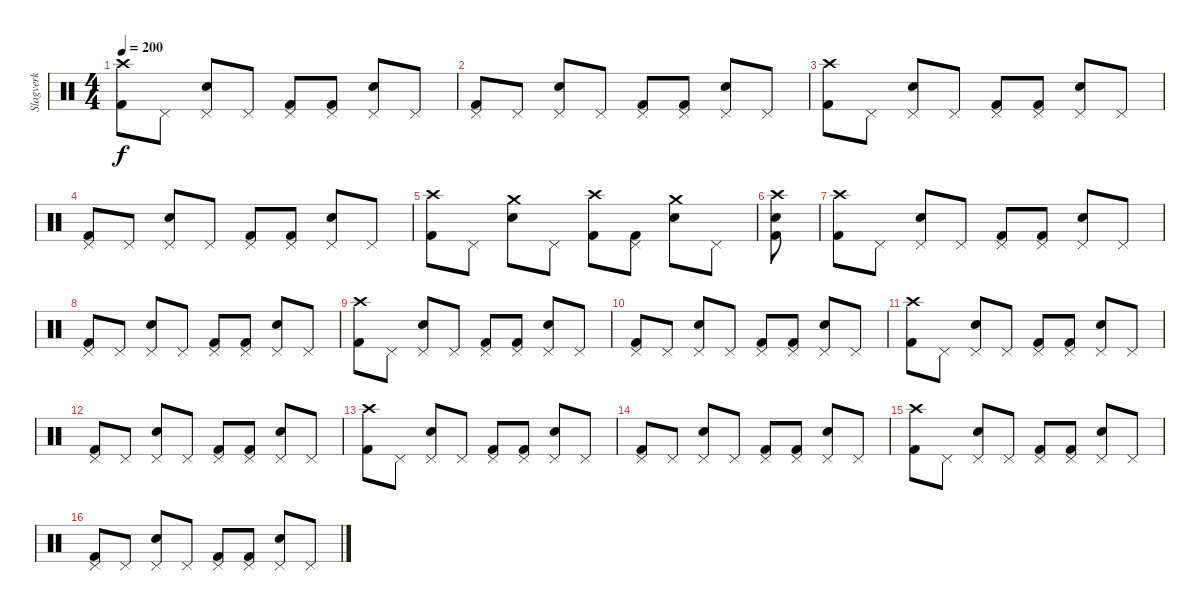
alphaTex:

\track ("Slagverk" "Slagverk") {instrument percussion}
\staff {score}
\articulation defaults
\ts (4 4)
\tempo 200
\clef neutral
\ks c
("Crash high (hit)" "Kick (hit) 2").8{dy f} "Pedal Hi-Hat (hit)".8 ("Pedal Hi-Hat (hit)" "Electric Snare (hit)").8 "Pedal Hi-Hat (hit)".8 ("Pedal Hi-Hat (hit)" "Kick (hit) 2").8 ("Pedal Hi-Hat (hit)" "Kick (hit) 2").8 ("Pedal Hi-Hat (hit)" "Electric Snare (hit)").8 "Pedal Hi-Hat (hit)".8 |
("Pedal Hi-Hat (hit)" "Kick (hit) 2").8 "Pedal Hi-Hat (hit)".8 ("Pedal Hi-Hat (hit)" "Electric Snare (hit)").8 "Pedal Hi-Hat (hit)".8 ("Pedal Hi-Hat (hit)" "Kick (hit) 2").8 ("Pedal Hi-Hat (hit)" "Kick (hit) 2").8 ("Pedal Hi-Hat (hit)" "Electric Snare (hit)").8 "Pedal Hi-Hat (hit)".8 |
("Crash high (hit)" "Kick (hit) 2").8 "Pedal Hi-Hat (hit)".8 ("Pedal Hi-Hat (hit)" "Electric Snare (hit)").8 "Pedal Hi-Hat (hit)".8 ("Pedal Hi-Hat (hit)" "Kick (hit) 2").8 ("Pedal Hi-Hat (hit)" "Kick (hit) 2").8 ("Pedal Hi-Hat (hit)" "Electric Snare (hit)").8 "Pedal Hi-Hat (hit)".8 |
("Pedal Hi-Hat (hit)" "Kick (hit) 2").8 "Pedal Hi-Hat (hit)".8 ("Pedal Hi-Hat (hit)" "Electric Snare (hit)").8 "Pedal Hi-Hat (hit)".8 ("Pedal Hi-Hat (hit)" "Kick (hit) 2").8 ("Pedal Hi-Hat (hit)" "Kick (hit) 2").8 ("Pedal Hi-Hat (hit)" "Electric Snare (hit)").8 "Pedal Hi-Hat (hit)".8 |
("Crash high (hit)" "Kick (hit) 2").8 "Pedal Hi-Hat (hit)".8 ("Crash medium (hit)" "Electric Snare (hit)").8 "Pedal Hi-Hat (hit)".8 ("Crash high (hit)" "Kick (hit) 2").8 ("Pedal Hi-Hat (hit)" "Kick (hit) 2").8 ("Crash medium (hit)" "Electric Snare (hit)").8 "Pedal Hi-Hat (hit)".8 |
("Crash high (hit)" "Electric Snare (hit)" "Kick (hit) 2").8 |
("Crash high (hit)" "Kick (hit) 2").8 "Pedal Hi-Hat (hit)".8 ("Pedal Hi-Hat (hit)" "Electric Snare (hit)").8 "Pedal Hi-Hat (hit)".8 ("Pedal Hi-Hat (hit)" "Kick (hit) 2").8 ("Pedal Hi-Hat (hit)" "Kick (hit) 2").8 ("Pedal Hi-Hat (hit)" "Electric Snare (hit)").8 "Pedal Hi-Hat (hit)".8 |
("Pedal Hi-Hat (hit)" "Kick (hit) 2").8 "Pedal Hi-Hat (hit)".8 ("Pedal Hi-Hat (hit)" "Electric Snare (hit)").8 "Pedal Hi-Hat (hit)".8 ("Pedal Hi-Hat (hit)" "Kick (hit) 2").8 ("Pedal Hi-Hat (hit)" "Kick (hit) 2").8 ("Pedal Hi-Hat (hit)" "Electric Snare (hit)").8 "Pedal Hi-Hat (hit)".8 |
("Crash high (hit)" "Kick (hit) 2").8 "Pedal Hi-Hat (hit)".8 ("Pedal Hi-Hat (hit)" "Electric Snare (hit)").8 "Pedal Hi-Hat (hit)".8 ("Pedal Hi-Hat (hit)" "Kick (hit) 2").8 ("Pedal Hi-Hat (hit)" "Kick (hit) 2").8 ("Pedal Hi-Hat (hit)" "Electric Snare (hit)").8 "Pedal Hi-Hat (hit)".8 |
("Pedal Hi-Hat (hit)" "Kick (hit) 2").8 "Pedal Hi-Hat (hit)".8 ("Pedal Hi-Hat (hit)" "Electric Snare (hit)").8 "Pedal Hi-Hat (hit)".8 ("Pedal Hi-Hat (hit)" "Kick (hit) 2").8 ("Pedal Hi-Hat (hit)" "Kick (hit) 2").8 ("Pedal Hi-Hat (hit)" "Electric Snare (hit)").8 "Pedal Hi-Hat (hit)".8 |
("Crash high (hit)" "Kick (hit) 2").8 "Pedal Hi-Hat (hit)".8 ("Pedal Hi-Hat (hit)" "Electric Snare (hit)").8 "Pedal Hi-Hat (hit)".8 ("Pedal Hi-Hat (hit)" "Kick (hit) 2").8 ("Pedal Hi-Hat (hit)" "Kick (hit) 2").8 ("Pedal Hi-Hat (hit)" "Electric Snare (hit)").8 "Pedal Hi-Hat (hit)".8 |
("Pedal Hi-Hat (hit)" "Kick (hit) 2").8 "Pedal Hi-Hat (hit)".8 ("Pedal Hi-Hat (hit)" "Electric Snare (hit)").8 "Pedal Hi-Hat (hit)".8 ("Pedal Hi-Hat (hit)" "Kick (hit) 2").8 ("Pedal Hi-Hat (hit)" "Kick (hit) 2").8 ("Pedal Hi-Hat (hit)" "Electric Snare (hit)").8 "Pedal Hi-Hat (hit)".8 |
("Crash high (hit)" "Kick (hit) 2").8 "Pedal Hi-Hat (hit)".8 ("Pedal Hi-Hat (hit)" "Electric Snare (hit)").8 "Pedal Hi-Hat (hit)".8 ("Pedal Hi-Hat (hit)" "Kick (hit) 2").8 ("Pedal Hi-Hat (hit)" "Kick (hit) 2").8 ("Pedal Hi-Hat (hit)" "Electric Snare (hit)").8 "Pedal Hi-Hat (hit)".8 |
("Pedal Hi-Hat (hit)" "Kick (hit) 2").8 "Pedal Hi-Hat (hit)".8 ("Pedal Hi-Hat (hit)" "Electric Snare (hit)").8 "Pedal Hi-Hat (hit)".8 ("Pedal Hi-Hat (hit)" "Kick (hit) 2").8 ("Pedal Hi-Hat (hit)" "Kick (hit) 2").8 ("Pedal Hi-Hat (hit)" "Electric Snare (hit)").8 "Pedal Hi-Hat (hit)".8 |
("Crash high (hit)" "Kick (hit) 2").8{volume 0} "Pedal Hi-Hat (hit)".8 ("Pedal Hi-Hat (hit)" "Electric Snare (hit)").8 "Pedal Hi-Hat (hit)".8 ("Pedal Hi-Hat (hit)" "Kick (hit) 2").8 ("Pedal Hi-Hat (hit)" "Kick (hit) 2").8 ("Pedal Hi-Hat (hit)" "Electric Snare (hit)").8 "Pedal Hi-Hat (hit)".8 |
("Pedal Hi-Hat (hit)" "Kick (hit) 2").8 "Pedal Hi-Hat (hit)".8 ("Pedal Hi-Hat (hit)" "Electric Snare (hit)").8 "Pedal Hi-Hat (hit)".8 ("Pedal Hi-Hat (hit)" "Kick (hit) 2").8 ("Pedal Hi-Hat (hit)" "Kick (hit) 2").8 ("Pedal Hi-Hat (hit)" "Electric Snare (hit)").8 "Pedal Hi-Hat (hit)".8
